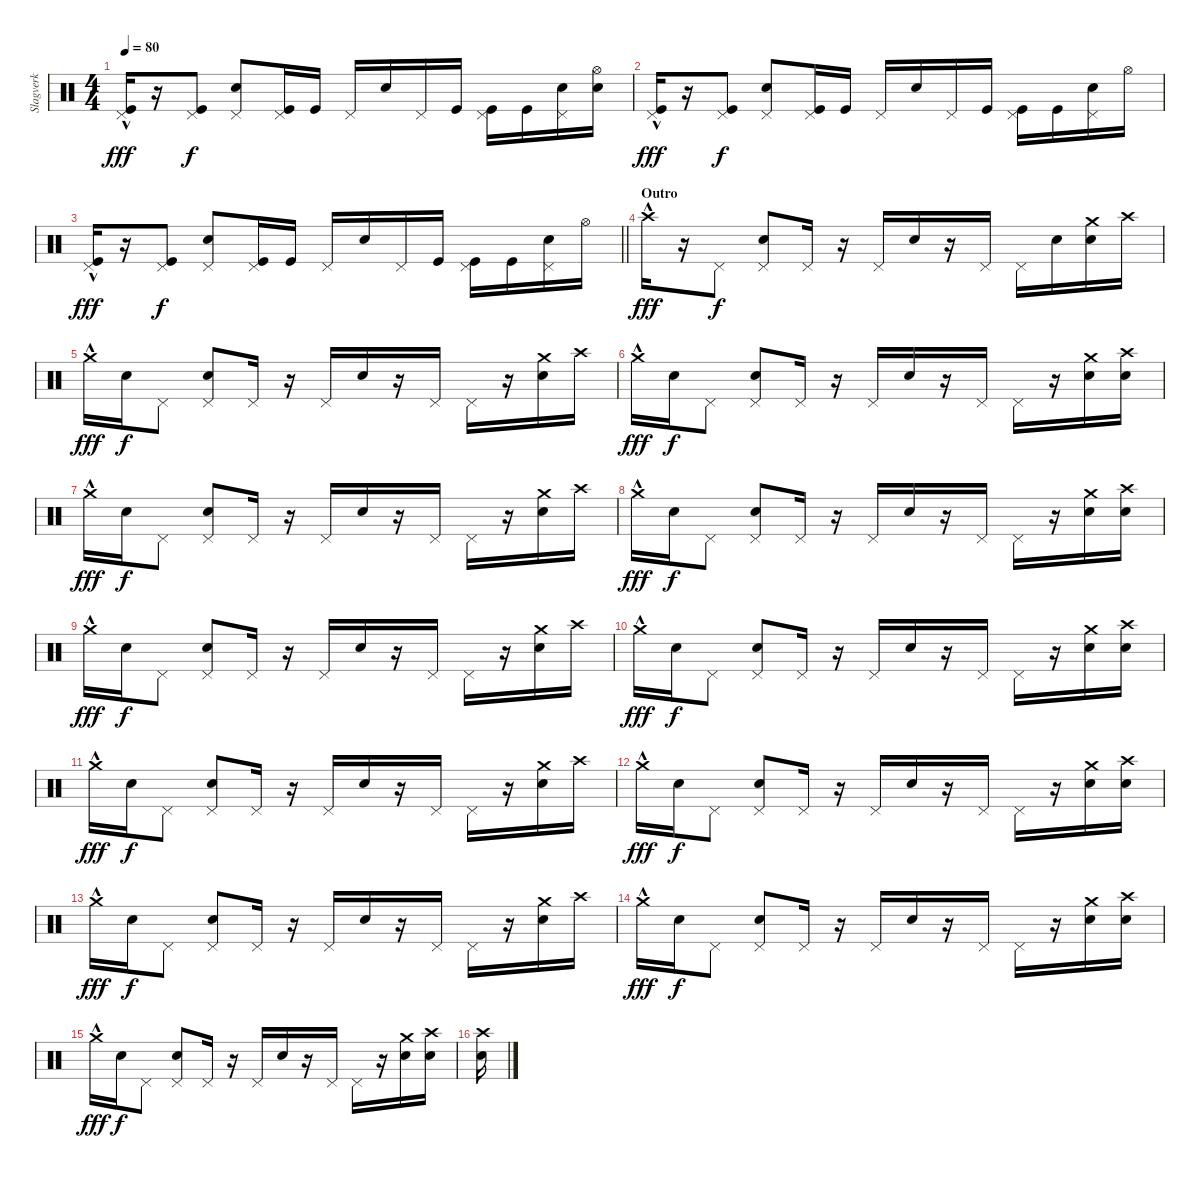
\track ("Slagverk" "Slagverk") {instrument percussion}
\staff {score}
\articulation defaults
\ts (4 4)
\tempo 80
\clef neutral
\ks c
("Pedal Hi-Hat (hit)"{hac} "Kick (hit)").16{dy fff} r.16 ("Pedal Hi-Hat (hit)" "Kick (hit)").8{dy f} ("Pedal Hi-Hat (hit)" "Snare (hit) 2").8 ("Pedal Hi-Hat (hit)" "Kick (hit)").16 "Kick (hit)".16 "Pedal Hi-Hat (hit)".16 "Snare (hit) 2".16 "Pedal Hi-Hat (hit)".16 "Kick (hit)".16 ("Pedal Hi-Hat (hit)" "Kick (hit)").16 "Kick (hit)".16 ("Pedal Hi-Hat (hit)" "Snare (hit) 2").16 ("Hi-Hat (open)" "Snare (hit) 2").16 |
("Pedal Hi-Hat (hit)"{hac} "Kick (hit)").16{dy fff} r.16 ("Pedal Hi-Hat (hit)" "Kick (hit)").8{dy f} ("Pedal Hi-Hat (hit)" "Snare (hit) 2").8 ("Pedal Hi-Hat (hit)" "Kick (hit)").16 "Kick (hit)".16 "Pedal Hi-Hat (hit)".16 "Snare (hit) 2".16 "Pedal Hi-Hat (hit)".16 "Kick (hit)".16 ("Pedal Hi-Hat (hit)" "Kick (hit)").16 "Kick (hit)".16 ("Pedal Hi-Hat (hit)" "Snare (hit) 2").16 "Hi-Hat (open)".16 |
\barLineRight lightlight
("Pedal Hi-Hat (hit)"{hac} "Kick (hit)").16{dy fff} r.16 ("Pedal Hi-Hat (hit)" "Kick (hit)").8{dy f} ("Pedal Hi-Hat (hit)" "Snare (hit) 2").8 ("Pedal Hi-Hat (hit)" "Kick (hit)").16 "Kick (hit)".16 "Pedal Hi-Hat (hit)".16 "Snare (hit) 2".16 "Pedal Hi-Hat (hit)".16 "Kick (hit)".16 ("Pedal Hi-Hat (hit)" "Kick (hit)").16 "Kick (hit)".16 ("Pedal Hi-Hat (hit)" "Snare (hit) 2").16 "Hi-Hat (open)".16 |
\section ("" "Outro")
"Crash high (hit)"{hac}.16{dy fff} r.16 "Pedal Hi-Hat (hit)".8{dy f} ("Pedal Hi-Hat (hit)" "Snare (hit) 2").8 "Pedal Hi-Hat (hit)".16 r.16 "Pedal Hi-Hat (hit)".16 "Snare (hit) 2".16 r.16 "Pedal Hi-Hat (hit)".16 "Pedal Hi-Hat (hit)".16 "Snare (hit) 2".16 ("Crash medium (hit)" "Snare (hit) 2").16 "Crash high (hit)".16 |
"Crash medium (hit)"{hac}.16{dy fff} "Snare (hit) 2".16{dy f} "Pedal Hi-Hat (hit)".8 ("Pedal Hi-Hat (hit)" "Snare (hit) 2").8 "Pedal Hi-Hat (hit)".16 r.16 "Pedal Hi-Hat (hit)".16 "Snare (hit) 2".16 r.16 "Pedal Hi-Hat (hit)".16 "Pedal Hi-Hat (hit)".16 r.16 ("Crash medium (hit)" "Snare (hit) 2").16 "Crash high (hit)".16 |
"Crash medium (hit)"{hac}.16{dy fff} "Snare (hit) 2".16{dy f} "Pedal Hi-Hat (hit)".8 ("Pedal Hi-Hat (hit)" "Snare (hit) 2").8 "Pedal Hi-Hat (hit)".16 r.16 "Pedal Hi-Hat (hit)".16 "Snare (hit) 2".16 r.16 "Pedal Hi-Hat (hit)".16 "Pedal Hi-Hat (hit)".16 r.16 ("Crash medium (hit)" "Snare (hit) 2").16 ("Crash high (hit)" "Snare (hit) 2").16 |
"Crash medium (hit)"{hac}.16{dy fff} "Snare (hit) 2".16{dy f} "Pedal Hi-Hat (hit)".8 ("Pedal Hi-Hat (hit)" "Snare (hit) 2").8 "Pedal Hi-Hat (hit)".16 r.16 "Pedal Hi-Hat (hit)".16 "Snare (hit) 2".16 r.16 "Pedal Hi-Hat (hit)".16 "Pedal Hi-Hat (hit)".16 r.16 ("Crash medium (hit)" "Snare (hit) 2").16 "Crash high (hit)".16 |
"Crash medium (hit)"{hac}.16{dy fff} "Snare (hit) 2".16{dy f} "Pedal Hi-Hat (hit)".8 ("Pedal Hi-Hat (hit)" "Snare (hit) 2").8 "Pedal Hi-Hat (hit)".16 r.16 "Pedal Hi-Hat (hit)".16 "Snare (hit) 2".16 r.16 "Pedal Hi-Hat (hit)".16 "Pedal Hi-Hat (hit)".16 r.16 ("Crash medium (hit)" "Snare (hit) 2").16 ("Crash high (hit)" "Snare (hit) 2").16 |
"Crash medium (hit)"{hac}.16{dy fff} "Snare (hit) 2".16{dy f} "Pedal Hi-Hat (hit)".8 ("Pedal Hi-Hat (hit)" "Snare (hit) 2").8 "Pedal Hi-Hat (hit)".16 r.16 "Pedal Hi-Hat (hit)".16 "Snare (hit) 2".16 r.16 "Pedal Hi-Hat (hit)".16 "Pedal Hi-Hat (hit)".16 r.16 ("Crash medium (hit)" "Snare (hit) 2").16 "Crash high (hit)".16 |
"Crash medium (hit)"{hac}.16{dy fff} "Snare (hit) 2".16{dy f} "Pedal Hi-Hat (hit)".8 ("Pedal Hi-Hat (hit)" "Snare (hit) 2").8 "Pedal Hi-Hat (hit)".16 r.16 "Pedal Hi-Hat (hit)".16 "Snare (hit) 2".16 r.16 "Pedal Hi-Hat (hit)".16 "Pedal Hi-Hat (hit)".16 r.16 ("Crash medium (hit)" "Snare (hit) 2").16 ("Crash high (hit)" "Snare (hit) 2").16 |
"Crash medium (hit)"{hac}.16{dy fff} "Snare (hit) 2".16{dy f} "Pedal Hi-Hat (hit)".8 ("Pedal Hi-Hat (hit)" "Snare (hit) 2").8 "Pedal Hi-Hat (hit)".16 r.16 "Pedal Hi-Hat (hit)".16 "Snare (hit) 2".16 r.16 "Pedal Hi-Hat (hit)".16 "Pedal Hi-Hat (hit)".16 r.16 ("Crash medium (hit)" "Snare (hit) 2").16 "Crash high (hit)".16 |
"Crash medium (hit)"{hac}.16{dy fff} "Snare (hit) 2".16{dy f} "Pedal Hi-Hat (hit)".8 ("Pedal Hi-Hat (hit)" "Snare (hit) 2").8 "Pedal Hi-Hat (hit)".16 r.16 "Pedal Hi-Hat (hit)".16 "Snare (hit) 2".16 r.16 "Pedal Hi-Hat (hit)".16 "Pedal Hi-Hat (hit)".16 r.16 ("Crash medium (hit)" "Snare (hit) 2").16 ("Crash high (hit)" "Snare (hit) 2").16 |
"Crash medium (hit)"{hac}.16{dy fff} "Snare (hit) 2".16{dy f} "Pedal Hi-Hat (hit)".8 ("Pedal Hi-Hat (hit)" "Snare (hit) 2").8 "Pedal Hi-Hat (hit)".16 r.16 "Pedal Hi-Hat (hit)".16 "Snare (hit) 2".16 r.16 "Pedal Hi-Hat (hit)".16 "Pedal Hi-Hat (hit)".16 r.16 ("Crash medium (hit)" "Snare (hit) 2").16 "Crash high (hit)".16 |
"Crash medium (hit)"{hac}.16{dy fff} "Snare (hit) 2".16{dy f} "Pedal Hi-Hat (hit)".8 ("Pedal Hi-Hat (hit)" "Snare (hit) 2").8 "Pedal Hi-Hat (hit)".16 r.16 "Pedal Hi-Hat (hit)".16 "Snare (hit) 2".16 r.16 "Pedal Hi-Hat (hit)".16 "Pedal Hi-Hat (hit)".16 r.16 ("Crash medium (hit)" "Snare (hit) 2").16 ("Crash high (hit)" "Snare (hit) 2").16 |
"Crash medium (hit)"{hac}.16{dy fff} "Snare (hit) 2".16{dy f} "Pedal Hi-Hat (hit)".8 ("Pedal Hi-Hat (hit)" "Snare (hit) 2").8 "Pedal Hi-Hat (hit)".16 r.16 "Pedal Hi-Hat (hit)".16 "Snare (hit) 2".16 r.16 "Pedal Hi-Hat (hit)".16 "Pedal Hi-Hat (hit)".16 r.16 ("Crash medium (hit)" "Snare (hit) 2").16 ("Crash high (hit)" "Snare (hit) 2").16 |
("Crash high (hit)" "Snare (hit) 2").16
